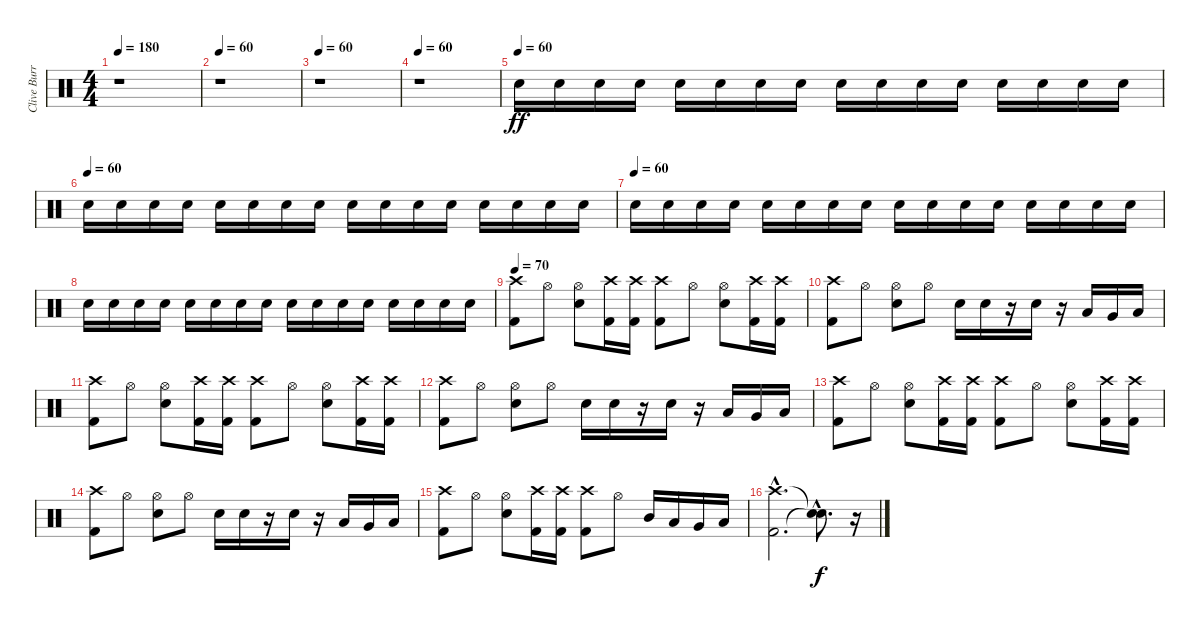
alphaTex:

\track ("Clive Burr" "Clive Burr") {instrument percussion}
\staff {score}
\articulation defaults
\ts (4 4)
\tempo 180
\tempo 70
\tempo 60
\tempo 180
\clef neutral
\ks c
r.1{dy ff} |
\tempo 60
r.1 |
\tempo 60
r.1 |
\tempo 60
r.1 |
\tempo (60)
"Snare (hit) 2".16{volume 0} "Snare (hit) 2".16{volume 0} "Snare (hit) 2".16{volume 0} "Snare (hit) 2".16{volume 1} "Snare (hit) 2".16{volume 1} "Snare (hit) 2".16{volume 1} "Snare (hit) 2".16{volume 2} "Snare (hit) 2".16{volume 2} "Snare (hit) 2".16{volume 2} "Snare (hit) 2".16{volume 2} "Snare (hit) 2".16{volume 2} "Snare (hit) 2".16{volume 3} "Snare (hit) 2".16{volume 3} "Snare (hit) 2".16{volume 3} "Snare (hit) 2".16{volume 4} "Snare (hit) 2".16{volume 4} |
\tempo (60)
"Snare (hit) 2".16{volume 4} "Snare (hit) 2".16{volume 4} "Snare (hit) 2".16{volume 4} "Snare (hit) 2".16{volume 5} "Snare (hit) 2".16{volume 5} "Snare (hit) 2".16{volume 5} "Snare (hit) 2".16{volume 6} "Snare (hit) 2".16{volume 6} "Snare (hit) 2".16{volume 6} "Snare (hit) 2".16{volume 6} "Snare (hit) 2".16{volume 6} "Snare (hit) 2".16{volume 7} "Snare (hit) 2".16{volume 7} "Snare (hit) 2".16{volume 7} "Snare (hit) 2".16{volume 8} "Snare (hit) 2".16{volume 8} |
\tempo (60)
"Snare (hit) 2".16{volume 8} "Snare (hit) 2".16{volume 8} "Snare (hit) 2".16{volume 8} "Snare (hit) 2".16{volume 9} "Snare (hit) 2".16{volume 9} "Snare (hit) 2".16{volume 9} "Snare (hit) 2".16{volume 10} "Snare (hit) 2".16{volume 10} "Snare (hit) 2".16{volume 10} "Snare (hit) 2".16{volume 10} "Snare (hit) 2".16{volume 10} "Snare (hit) 2".16{volume 11} "Snare (hit) 2".16{volume 11} "Snare (hit) 2".16{volume 11} "Snare (hit) 2".16{volume 12} "Snare (hit) 2".16{volume 12} |
"Snare (hit) 2".16{volume 12} "Snare (hit) 2".16{volume 12} "Snare (hit) 2".16{volume 12} "Snare (hit) 2".16{volume 13} "Snare (hit) 2".16{volume 13} "Snare (hit) 2".16{volume 13} "Snare (hit) 2".16{volume 13} "Snare (hit) 2".16{volume 14} "Snare (hit) 2".16{volume 14} "Snare (hit) 2".16{volume 14} "Snare (hit) 2".16{volume 14} "Snare (hit) 2".16{volume 15} "Snare (hit) 2".16{volume 15} "Snare (hit) 2".16{volume 15} "Snare (hit) 2".16{volume 15} "Snare (hit) 2".16{volume 16} |
\tempo 70
("Kick (hit) 2" "Crash high (hit)").8{volume 16} "Hi-Hat (open)".8 ("Snare (hit) 2" "Hi-Hat (open)").8 ("Kick (hit) 2" "Crash high (hit)").16 ("Kick (hit) 2" "Crash high (hit)").16 ("Kick (hit) 2" "Crash high (hit)").8 "Hi-Hat (open)".8 ("Snare (hit) 2" "Hi-Hat (open)").8 ("Kick (hit) 2" "Crash high (hit)").16 ("Kick (hit) 2" "Crash high (hit)").16 |
("Kick (hit) 2" "Crash high (hit)").8 "Hi-Hat (open)".8 ("Snare (hit) 2" "Hi-Hat (open)").8 "Hi-Hat (open)".8 "Snare (hit) 2".16 "Snare (hit) 2".16 r.16 "Snare (hit) 2".16 r.16 "Low Tom (hit)".16 "Very Low Tom (hit)".16 "Low Floor Tom (hit)".16 |
("Kick (hit) 2" "Crash high (hit)").8 "Hi-Hat (open)".8 ("Snare (hit) 2" "Hi-Hat (open)").8 ("Kick (hit) 2" "Crash high (hit)").16 ("Kick (hit) 2" "Crash high (hit)").16 ("Kick (hit) 2" "Crash high (hit)").8 "Hi-Hat (open)".8 ("Snare (hit) 2" "Hi-Hat (open)").8 ("Kick (hit) 2" "Crash high (hit)").16 ("Kick (hit) 2" "Crash high (hit)").16 |
("Kick (hit) 2" "Crash high (hit)").8 "Hi-Hat (open)".8 ("Snare (hit) 2" "Hi-Hat (open)").8 "Hi-Hat (open)".8 "Snare (hit) 2".16 "Snare (hit) 2".16 r.16 "Snare (hit) 2".16 r.16 "Low Tom (hit)".16 "Very Low Tom (hit)".16 "Low Floor Tom (hit)".16 |
("Kick (hit) 2" "Crash high (hit)").8 "Hi-Hat (open)".8 ("Snare (hit) 2" "Hi-Hat (open)").8 ("Kick (hit) 2" "Crash high (hit)").16 ("Kick (hit) 2" "Crash high (hit)").16 ("Kick (hit) 2" "Crash high (hit)").8 "Hi-Hat (open)".8 ("Snare (hit) 2" "Hi-Hat (open)").8 ("Kick (hit) 2" "Crash high (hit)").16 ("Kick (hit) 2" "Crash high (hit)").16 |
("Kick (hit) 2" "Crash high (hit)").8 "Hi-Hat (open)".8 ("Snare (hit) 2" "Hi-Hat (open)").8 "Hi-Hat (open)".8 "Snare (hit) 2".16 "Snare (hit) 2".16 r.16 "Snare (hit) 2".16 r.16 "Low Tom (hit)".16 "Very Low Tom (hit)".16 "Low Floor Tom (hit)".16 |
("Kick (hit) 2" "Crash high (hit)").8 "Hi-Hat (open)".8 ("Snare (hit) 2" "Hi-Hat (open)").8 ("Kick (hit) 2" "Crash high (hit)").16 ("Kick (hit) 2" "Crash high (hit)").16 ("Kick (hit) 2" "Crash high (hit)").8 "Hi-Hat (open)".8 "Mid Tom (hit)".16 "Low Tom (hit)".16 "Very Low Tom (hit)".16 "Low Floor Tom (hit)".16 |
("Kick (hit) 2"{hac} "Crash high (hit)"{hac}).2{d} ("Snare (hit)"{hac t} "Snare (hit)"{hac t}).8{d dy f} r.16
